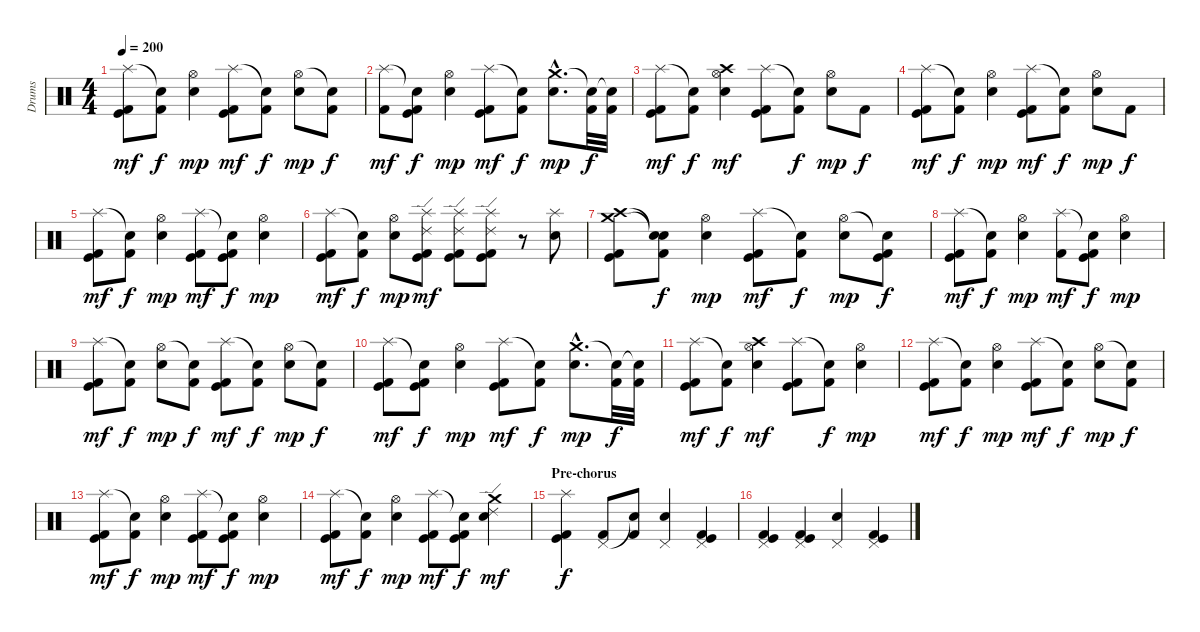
\track ("Drums" "Drums") {instrument percussion}
\staff {score}
\articulation defaults
\ts (4 4)
\tempo 200
\clef neutral
\ks c
("Splash (hit)" "Kick (hit)" "Kick (hit) 2").8{dy mf} ("Snare (hit)"{t} "Kick (hit) 2").8{dy f} ("Hi-Hat (open)" "Snare (hit) 2").4{dy mp} ("Splash (hit)" "Kick (hit)" "Kick (hit) 2").8{dy mf} ("Snare (hit)"{t} "Kick (hit) 2").8{dy f} ("Hi-Hat (open)" "Snare (hit) 2").8{dy mp} ("Snare (hit)"{t} "Kick (hit) 2").8{dy f} |
("Splash (hit)" "Kick (hit) 2").8{dy mf} ("Snare (hit)"{t} "Kick (hit)" "Kick (hit) 2").8{dy f} ("Hi-Hat (open)" "Snare (hit) 2").4{dy mp} ("Splash (hit)" "Kick (hit)" "Kick (hit) 2").8{dy mf} ("Snare (hit)"{t} "Kick (hit) 2").8{dy f} ("Crash medium (hit)"{hac} "Snare (hit) 2"{hac}).8{d dy mp} ("Snare (hit)"{t} "Kick (hit) 2").32{dy f} ("Snare (hit)"{t} "Kick (hit) 2").32 |
("Splash (hit)" "Kick (hit)" "Kick (hit) 2").8{dy mf} ("Snare (hit)"{t} "Kick (hit) 2").8{dy f} ("Crash high (hit)" "Hi-Hat (open)" "Snare (hit) 2").4{dy mf} ("Splash (hit)" "Kick (hit)" "Kick (hit) 2").8 ("Snare (hit)"{t} "Kick (hit) 2").8{dy f} ("Hi-Hat (open)" "Snare (hit) 2").8{dy mp} "Kick (hit) 2".8{dy f} |
("Splash (hit)" "Kick (hit)" "Kick (hit) 2").8{dy mf} ("Snare (hit)"{t} "Kick (hit) 2").8{dy f} ("Hi-Hat (open)" "Snare (hit) 2").4{dy mp} ("Splash (hit)" "Kick (hit)" "Kick (hit) 2").8{dy mf} ("Snare (hit)"{t} "Kick (hit) 2").8{dy f} ("Hi-Hat (open)" "Snare (hit) 2").8{dy mp} "Kick (hit) 2".8{dy f} |
("Splash (hit)" "Kick (hit)" "Kick (hit) 2").8{dy mf} ("Snare (hit)"{t} "Kick (hit) 2").8{dy f} ("Hi-Hat (open)" "Snare (hit) 2").4{dy mp} ("Splash (hit)" "Kick (hit)" "Kick (hit) 2").8{dy mf} ("Snare (hit)"{t} "Kick (hit)" "Kick (hit) 2").8{dy f} ("Hi-Hat (open)" "Snare (hit) 2").4{dy mp} |
("Splash (hit)" "Kick (hit)" "Kick (hit) 2").8{dy mf} ("Snare (hit)"{t} "Kick (hit) 2").8{dy f} ("Hi-Hat (open)" "Snare (hit) 2").8{dy mp} ("Splash (hit)" "Ride (edge) 2" "Kick (hit)" "Kick (hit) 2").8{dy mf} ("Splash (hit)" "Ride (edge) 2" "Kick (hit)" "Kick (hit) 2").8 ("Splash (hit)" "Ride (edge) 2" "Kick (hit)" "Kick (hit) 2").8 r.8 ("Splash (hit)" "Snare (hit) 2").8 |
("Crash high (hit)" "Crash medium (hit)" "Kick (hit)" "Kick (hit) 2").8 ("Snare (hit)"{t} "Snare (hit)"{t} "Kick (hit) 2").8{dy f} ("Hi-Hat (open)" "Snare (hit) 2").4{dy mp} ("Splash (hit)" "Kick (hit)" "Kick (hit) 2").8{dy mf} ("Snare (hit)"{t} "Kick (hit) 2").8{dy f} ("Hi-Hat (open)" "Snare (hit) 2").8{dy mp} ("Snare (hit)"{t} "Kick (hit) 2" "Kick (hit)").8{dy f} |
("Splash (hit)" "Kick (hit)" "Kick (hit) 2").8{dy mf} ("Snare (hit)"{t} "Kick (hit) 2").8{dy f} ("Hi-Hat (open)" "Snare (hit) 2").4{dy mp} ("Splash (hit)" "Kick (hit) 2").8{dy mf} ("Snare (hit)"{t} "Kick (hit)" "Kick (hit) 2").8{dy f} ("Hi-Hat (open)" "Snare (hit) 2").4{dy mp} |
("Splash (hit)" "Kick (hit)" "Kick (hit) 2").8{dy mf} ("Snare (hit)"{t} "Kick (hit) 2").8{dy f} ("Hi-Hat (open)" "Snare (hit) 2").8{dy mp} ("Snare (hit)"{t} "Kick (hit) 2").8{dy f} ("Splash (hit)" "Kick (hit)" "Kick (hit) 2").8{dy mf} ("Snare (hit)"{t} "Kick (hit) 2").8{dy f} ("Hi-Hat (open)" "Snare (hit) 2").8{dy mp} ("Snare (hit)"{t} "Kick (hit) 2").8{dy f} |
("Splash (hit)" "Kick (hit)" "Kick (hit) 2").8{dy mf} ("Snare (hit)"{t} "Kick (hit)" "Kick (hit) 2").8{dy f} ("Hi-Hat (open)" "Snare (hit) 2").4{dy mp} ("Splash (hit)" "Kick (hit)" "Kick (hit) 2").8{dy mf} ("Snare (hit)"{t} "Kick (hit) 2").8{dy f} ("Crash medium (hit)"{hac} "Snare (hit) 2"{hac}).8{d dy mp} ("Snare (hit)"{t} "Kick (hit) 2").32{dy f} ("Snare (hit)"{t} "Kick (hit) 2").32 |
("Splash (hit)" "Kick (hit)" "Kick (hit) 2").8{dy mf} ("Snare (hit)"{t} "Kick (hit) 2").8{dy f} ("Crash high (hit)" "Hi-Hat (open)" "Snare (hit) 2").4{dy mf} ("Splash (hit)" "Kick (hit)" "Kick (hit) 2").8 ("Snare (hit)"{t} "Kick (hit) 2").8{dy f} ("Hi-Hat (open)" "Snare (hit) 2").4{dy mp} |
("Splash (hit)" "Kick (hit)" "Kick (hit) 2").8{dy mf} ("Snare (hit)"{t} "Kick (hit) 2").8{dy f} ("Hi-Hat (open)" "Snare (hit) 2").4{dy mp} ("Splash (hit)" "Kick (hit)" "Kick (hit) 2").8{dy mf} ("Snare (hit)"{t} "Kick (hit) 2").8{dy f} ("Hi-Hat (open)" "Snare (hit) 2").8{dy mp} ("Snare (hit)"{t} "Kick (hit) 2").8{dy f} |
("Splash (hit)" "Kick (hit)" "Kick (hit) 2").8{dy mf} ("Snare (hit)"{t} "Kick (hit) 2").8{dy f} ("Hi-Hat (open)" "Snare (hit) 2").4{dy mp} ("Splash (hit)" "Kick (hit)" "Kick (hit) 2").8{dy mf} ("Snare (hit)"{t} "Kick (hit)" "Kick (hit) 2").8{dy f} ("Hi-Hat (open)" "Snare (hit) 2").4{dy mp} |
("Splash (hit)" "Kick (hit)" "Kick (hit) 2").8{dy mf} ("Snare (hit)"{t} "Kick (hit) 2").8{dy f} ("Hi-Hat (open)" "Snare (hit) 2").4{dy mp} ("Splash (hit)" "Kick (hit)" "Kick (hit) 2").8{dy mf} ("Snare (hit)"{t} "Kick (hit)" "Kick (hit) 2").8{dy f} ("Ride (edge) 2" "Crash medium (hit)" "Snare (hit) 2").4{dy mf} |
\section ("" "Pre-chorus")
("Splash (hit)" "Kick (hit)" "Kick (hit) 2").4{dy f} ("Pedal Hi-Hat (hit)" "Kick (hit) 2").8 ("Snare (hit)"{t} "Kick (hit) 2").8 ("Pedal Hi-Hat (hit)" "Snare (hit) 2").4 ("Pedal Hi-Hat (hit)" "Kick (hit)" "Kick (hit) 2").4 |
("Pedal Hi-Hat (hit)" "Kick (hit)" "Kick (hit) 2").4 ("Pedal Hi-Hat (hit)" "Kick (hit)" "Kick (hit) 2").4 ("Pedal Hi-Hat (hit)" "Snare (hit) 2").4 ("Pedal Hi-Hat (hit)" "Kick (hit)" "Kick (hit) 2").4
